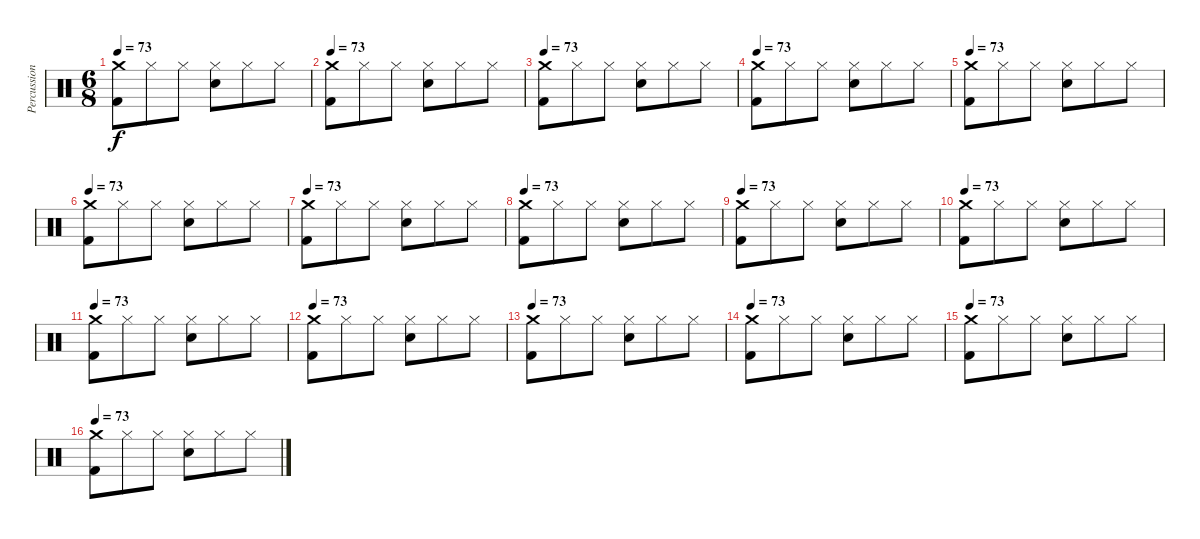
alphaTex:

\track ("Percussion" "Percussion") {instrument percussion}
\staff {score}
\articulation defaults
\ts (6 8)
\tempo 73
\clef neutral
\ks c
("Crash medium (hit)" "Kick (hit) 2").8{dy f} "Hi-Hat (closed)".8 "Hi-Hat (closed)".8 ("Hi-Hat (closed)" "Snare (hit) 2").8 "Hi-Hat (closed)".8 "Hi-Hat (closed)".8 |
\tempo 73
("Crash medium (hit)" "Kick (hit) 2").8 "Hi-Hat (closed)".8 "Hi-Hat (closed)".8 ("Hi-Hat (closed)" "Snare (hit) 2").8 "Hi-Hat (closed)".8 "Hi-Hat (closed)".8 |
\tempo 73
("Crash medium (hit)" "Kick (hit) 2").8 "Hi-Hat (closed)".8 "Hi-Hat (closed)".8 ("Hi-Hat (closed)" "Snare (hit) 2").8 "Hi-Hat (closed)".8 "Hi-Hat (closed)".8 |
\tempo 73
("Crash medium (hit)" "Kick (hit) 2").8 "Hi-Hat (closed)".8 "Hi-Hat (closed)".8 ("Hi-Hat (closed)" "Snare (hit) 2").8 "Hi-Hat (closed)".8 "Hi-Hat (closed)".8 |
\tempo 73
("Crash medium (hit)" "Kick (hit) 2").8 "Hi-Hat (closed)".8 "Hi-Hat (closed)".8 ("Hi-Hat (closed)" "Snare (hit) 2").8 "Hi-Hat (closed)".8 "Hi-Hat (closed)".8 |
\tempo 73
("Crash medium (hit)" "Kick (hit) 2").8 "Hi-Hat (closed)".8 "Hi-Hat (closed)".8 ("Hi-Hat (closed)" "Snare (hit) 2").8 "Hi-Hat (closed)".8 "Hi-Hat (closed)".8 |
\tempo 73
("Crash medium (hit)" "Kick (hit) 2").8 "Hi-Hat (closed)".8 "Hi-Hat (closed)".8 ("Hi-Hat (closed)" "Snare (hit) 2").8 "Hi-Hat (closed)".8 "Hi-Hat (closed)".8 |
\tempo 73
("Crash medium (hit)" "Kick (hit) 2").8 "Hi-Hat (closed)".8 "Hi-Hat (closed)".8 ("Hi-Hat (closed)" "Snare (hit) 2").8 "Hi-Hat (closed)".8 "Hi-Hat (closed)".8 |
\tempo 73
("Crash medium (hit)" "Kick (hit) 2").8 "Hi-Hat (closed)".8 "Hi-Hat (closed)".8 ("Hi-Hat (closed)" "Snare (hit) 2").8 "Hi-Hat (closed)".8 "Hi-Hat (closed)".8 |
\tempo 73
("Crash medium (hit)" "Kick (hit) 2").8 "Hi-Hat (closed)".8 "Hi-Hat (closed)".8 ("Hi-Hat (closed)" "Snare (hit) 2").8 "Hi-Hat (closed)".8 "Hi-Hat (closed)".8 |
\tempo 73
("Crash medium (hit)" "Kick (hit) 2").8 "Hi-Hat (closed)".8 "Hi-Hat (closed)".8 ("Hi-Hat (closed)" "Snare (hit) 2").8 "Hi-Hat (closed)".8 "Hi-Hat (closed)".8 |
\tempo 73
("Crash medium (hit)" "Kick (hit) 2").8 "Hi-Hat (closed)".8 "Hi-Hat (closed)".8 ("Hi-Hat (closed)" "Snare (hit) 2").8 "Hi-Hat (closed)".8 "Hi-Hat (closed)".8 |
\tempo 73
("Crash medium (hit)" "Kick (hit) 2").8 "Hi-Hat (closed)".8 "Hi-Hat (closed)".8 ("Hi-Hat (closed)" "Snare (hit) 2").8 "Hi-Hat (closed)".8 "Hi-Hat (closed)".8 |
\tempo 73
("Crash medium (hit)" "Kick (hit) 2").8 "Hi-Hat (closed)".8 "Hi-Hat (closed)".8 ("Hi-Hat (closed)" "Snare (hit) 2").8 "Hi-Hat (closed)".8 "Hi-Hat (closed)".8 |
\tempo 73
("Crash medium (hit)" "Kick (hit) 2").8 "Hi-Hat (closed)".8 "Hi-Hat (closed)".8 ("Hi-Hat (closed)" "Snare (hit) 2").8 "Hi-Hat (closed)".8 "Hi-Hat (closed)".8 |
\tempo 73
("Crash medium (hit)" "Kick (hit) 2").8 "Hi-Hat (closed)".8 "Hi-Hat (closed)".8 ("Hi-Hat (closed)" "Snare (hit) 2").8 "Hi-Hat (closed)".8 "Hi-Hat (closed)".8
